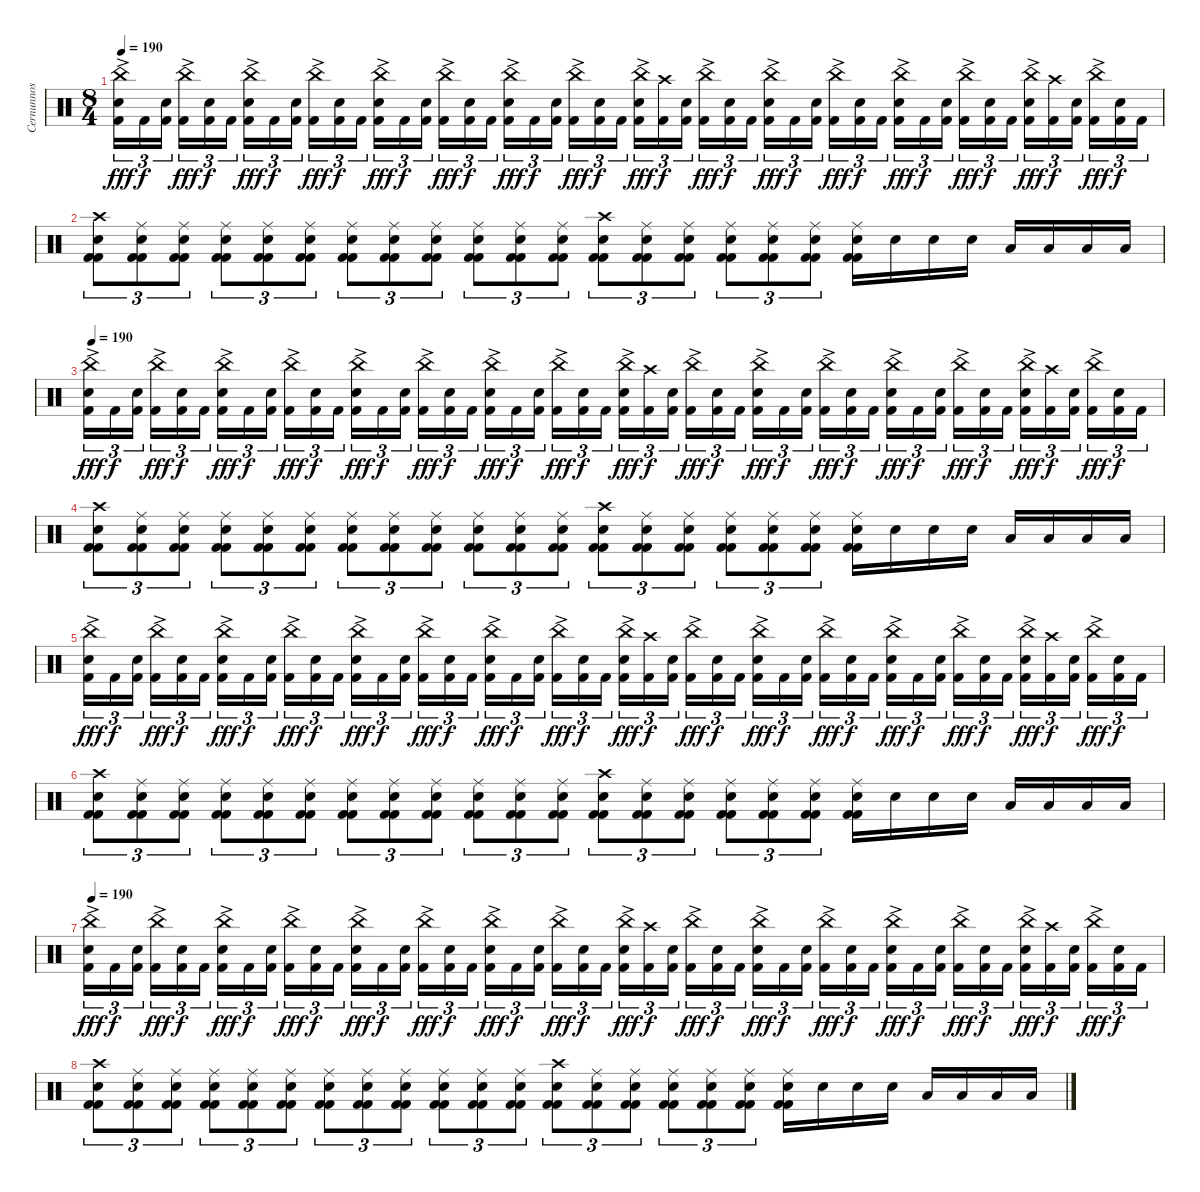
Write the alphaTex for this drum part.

\track ("Cernunnos (in memory)" "Cernunnos ") {instrument percussion}
\staff {score}
\articulation defaults
\ts (8 4)
\tempo 190
\clef neutral
\ks c
("China (hit)"{ac} "Electric Snare (hit)" "Kick (hit) 2").16{tu (3 2) dy fff} "Kick (hit) 2".16{tu (3 2) dy f} ("Electric Snare (hit)" "Kick (hit) 2").16{tu (3 2)} ("China (hit)"{ac} "Kick (hit) 2").16{tu (3 2) dy fff} ("Electric Snare (hit)" "Kick (hit) 2").16{tu (3 2) dy f} "Kick (hit) 2".16{tu (3 2)} ("China (hit)"{ac} "Electric Snare (hit)" "Kick (hit) 2").16{tu (3 2) dy fff} "Kick (hit) 2".16{tu (3 2) dy f} ("Electric Snare (hit)" "Kick (hit) 2").16{tu (3 2)} ("China (hit)"{ac} "Kick (hit) 2").16{tu (3 2) dy fff} ("Electric Snare (hit)" "Kick (hit) 2").16{tu (3 2) dy f} "Kick (hit) 2".16{tu (3 2)} ("China (hit)"{ac} "Electric Snare (hit)" "Kick (hit) 2").16{tu (3 2) dy fff} "Kick (hit) 2".16{tu (3 2) dy f} ("Electric Snare (hit)" "Kick (hit) 2").16{tu (3 2)} ("China (hit)"{ac} "Kick (hit) 2").16{tu (3 2) dy fff} ("Electric Snare (hit)" "Kick (hit) 2").16{tu (3 2) dy f} "Kick (hit) 2".16{tu (3 2)} ("China (hit)"{ac} "Electric Snare (hit)" "Kick (hit) 2").16{tu (3 2) dy fff} "Kick (hit) 2".16{tu (3 2) dy f} ("Electric Snare (hit)" "Kick (hit) 2").16{tu (3 2)} ("China (hit)"{ac} "Kick (hit) 2").16{tu (3 2) dy fff} ("Electric Snare (hit)" "Kick (hit) 2").16{tu (3 2) dy f} "Kick (hit) 2".16{tu (3 2)} ("China (hit)"{ac} "Electric Snare (hit)" "Kick (hit) 2").16{tu (3 2) dy fff} ("Crash high (hit)" "Kick (hit) 2").16{tu (3 2) dy f} ("Electric Snare (hit)" "Kick (hit) 2").16{tu (3 2)} ("China (hit)"{ac} "Kick (hit) 2").16{tu (3 2) dy fff} ("Electric Snare (hit)" "Kick (hit) 2").16{tu (3 2) dy f} "Kick (hit) 2".16{tu (3 2)} ("China (hit)"{ac} "Electric Snare (hit)" "Kick (hit) 2").16{tu (3 2) dy fff} "Kick (hit) 2".16{tu (3 2) dy f} ("Electric Snare (hit)" "Kick (hit) 2").16{tu (3 2)} ("China (hit)"{ac} "Kick (hit) 2").16{tu (3 2) dy fff} ("Electric Snare (hit)" "Kick (hit) 2").16{tu (3 2) dy f} "Kick (hit) 2".16{tu (3 2)} ("China (hit)"{ac} "Electric Snare (hit)" "Kick (hit) 2").16{tu (3 2) dy fff} "Kick (hit) 2".16{tu (3 2) dy f} ("Electric Snare (hit)" "Kick (hit) 2").16{tu (3 2)} ("China (hit)"{ac} "Kick (hit) 2").16{tu (3 2) dy fff} ("Electric Snare (hit)" "Kick (hit) 2").16{tu (3 2) dy f} "Kick (hit) 2".16{tu (3 2)} ("China (hit)"{ac} "Electric Snare (hit)" "Kick (hit) 2").16{tu (3 2) dy fff} ("Crash high (hit)" "Kick (hit) 2").16{tu (3 2) dy f} ("Electric Snare (hit)" "Kick (hit) 2").16{tu (3 2)} ("China (hit)"{ac} "Kick (hit) 2").16{tu (3 2) dy fff} ("Electric Snare (hit)" "Kick (hit) 2").16{tu (3 2) dy f} "Kick (hit) 2".16{tu (3 2)} |
("Crash high (hit)" "Electric Snare (hit)" "Kick (hit) 2" "Kick (hit) 2").8{tu (3 2)} ("Ride (middle)" "Electric Snare (hit)" "Kick (hit) 2" "Kick (hit) 2").8{tu (3 2)} ("Ride (middle)" "Electric Snare (hit)" "Kick (hit) 2" "Kick (hit) 2").8{tu (3 2)} ("Ride (middle)" "Electric Snare (hit)" "Kick (hit) 2" "Kick (hit) 2").8{tu (3 2)} ("Ride (middle)" "Electric Snare (hit)" "Kick (hit) 2" "Kick (hit) 2").8{tu (3 2)} ("Ride (middle)" "Electric Snare (hit)" "Kick (hit) 2" "Kick (hit) 2").8{tu (3 2)} ("Ride (middle)" "Electric Snare (hit)" "Kick (hit) 2" "Kick (hit) 2").8{tu (3 2)} ("Ride (middle)" "Electric Snare (hit)" "Kick (hit) 2" "Kick (hit) 2").8{tu (3 2)} ("Ride (middle)" "Electric Snare (hit)" "Kick (hit) 2" "Kick (hit) 2").8{tu (3 2)} ("Ride (middle)" "Electric Snare (hit)" "Kick (hit) 2" "Kick (hit) 2").8{tu (3 2)} ("Ride (middle)" "Electric Snare (hit)" "Kick (hit) 2" "Kick (hit) 2").8{tu (3 2)} ("Ride (middle)" "Electric Snare (hit)" "Kick (hit) 2" "Kick (hit) 2").8{tu (3 2)} ("Crash high (hit)" "Electric Snare (hit)" "Kick (hit) 2" "Kick (hit) 2").8{tu (3 2)} ("Ride (middle)" "Electric Snare (hit)" "Kick (hit) 2" "Kick (hit) 2").8{tu (3 2)} ("Ride (middle)" "Electric Snare (hit)" "Kick (hit) 2" "Kick (hit) 2").8{tu (3 2)} ("Ride (middle)" "Electric Snare (hit)" "Kick (hit) 2" "Kick (hit) 2").8{tu (3 2)} ("Ride (middle)" "Electric Snare (hit)" "Kick (hit) 2" "Kick (hit) 2").8{tu (3 2)} ("Ride (middle)" "Electric Snare (hit)" "Kick (hit) 2" "Kick (hit) 2").8{tu (3 2)} ("Ride (middle)" "Electric Snare (hit)" "Kick (hit) 2" "Kick (hit) 2").16 "Electric Snare (hit)".16 "Electric Snare (hit)".16 "Electric Snare (hit)".16 "Low Floor Tom (hit)".16 "Low Floor Tom (hit)".16 "Low Floor Tom (hit)".16 "Low Floor Tom (hit)".16 |
\tempo 190
("China (hit)"{ac} "Electric Snare (hit)" "Kick (hit) 2").16{tu (3 2) dy fff} "Kick (hit) 2".16{tu (3 2) dy f} ("Electric Snare (hit)" "Kick (hit) 2").16{tu (3 2)} ("China (hit)"{ac} "Kick (hit) 2").16{tu (3 2) dy fff} ("Electric Snare (hit)" "Kick (hit) 2").16{tu (3 2) dy f} "Kick (hit) 2".16{tu (3 2)} ("China (hit)"{ac} "Electric Snare (hit)" "Kick (hit) 2").16{tu (3 2) dy fff} "Kick (hit) 2".16{tu (3 2) dy f} ("Electric Snare (hit)" "Kick (hit) 2").16{tu (3 2)} ("China (hit)"{ac} "Kick (hit) 2").16{tu (3 2) dy fff} ("Electric Snare (hit)" "Kick (hit) 2").16{tu (3 2) dy f} "Kick (hit) 2".16{tu (3 2)} ("China (hit)"{ac} "Electric Snare (hit)" "Kick (hit) 2").16{tu (3 2) dy fff} "Kick (hit) 2".16{tu (3 2) dy f} ("Electric Snare (hit)" "Kick (hit) 2").16{tu (3 2)} ("China (hit)"{ac} "Kick (hit) 2").16{tu (3 2) dy fff} ("Electric Snare (hit)" "Kick (hit) 2").16{tu (3 2) dy f} "Kick (hit) 2".16{tu (3 2)} ("China (hit)"{ac} "Electric Snare (hit)" "Kick (hit) 2").16{tu (3 2) dy fff} "Kick (hit) 2".16{tu (3 2) dy f} ("Electric Snare (hit)" "Kick (hit) 2").16{tu (3 2)} ("China (hit)"{ac} "Kick (hit) 2").16{tu (3 2) dy fff} ("Electric Snare (hit)" "Kick (hit) 2").16{tu (3 2) dy f} "Kick (hit) 2".16{tu (3 2)} ("China (hit)"{ac} "Electric Snare (hit)" "Kick (hit) 2").16{tu (3 2) dy fff} ("Crash high (hit)" "Kick (hit) 2").16{tu (3 2) dy f} ("Electric Snare (hit)" "Kick (hit) 2").16{tu (3 2)} ("China (hit)"{ac} "Kick (hit) 2").16{tu (3 2) dy fff} ("Electric Snare (hit)" "Kick (hit) 2").16{tu (3 2) dy f} "Kick (hit) 2".16{tu (3 2)} ("China (hit)"{ac} "Electric Snare (hit)" "Kick (hit) 2").16{tu (3 2) dy fff} "Kick (hit) 2".16{tu (3 2) dy f} ("Electric Snare (hit)" "Kick (hit) 2").16{tu (3 2)} ("China (hit)"{ac} "Kick (hit) 2").16{tu (3 2) dy fff} ("Electric Snare (hit)" "Kick (hit) 2").16{tu (3 2) dy f} "Kick (hit) 2".16{tu (3 2)} ("China (hit)"{ac} "Electric Snare (hit)" "Kick (hit) 2").16{tu (3 2) dy fff} "Kick (hit) 2".16{tu (3 2) dy f} ("Electric Snare (hit)" "Kick (hit) 2").16{tu (3 2)} ("China (hit)"{ac} "Kick (hit) 2").16{tu (3 2) dy fff} ("Electric Snare (hit)" "Kick (hit) 2").16{tu (3 2) dy f} "Kick (hit) 2".16{tu (3 2)} ("China (hit)"{ac} "Electric Snare (hit)" "Kick (hit) 2").16{tu (3 2) dy fff} ("Crash high (hit)" "Kick (hit) 2").16{tu (3 2) dy f} ("Electric Snare (hit)" "Kick (hit) 2").16{tu (3 2)} ("China (hit)"{ac} "Kick (hit) 2").16{tu (3 2) dy fff} ("Electric Snare (hit)" "Kick (hit) 2").16{tu (3 2) dy f} "Kick (hit) 2".16{tu (3 2)} |
("Crash high (hit)" "Electric Snare (hit)" "Kick (hit) 2" "Kick (hit) 2").8{tu (3 2)} ("Ride (middle)" "Electric Snare (hit)" "Kick (hit) 2" "Kick (hit) 2").8{tu (3 2)} ("Ride (middle)" "Electric Snare (hit)" "Kick (hit) 2" "Kick (hit) 2").8{tu (3 2)} ("Ride (middle)" "Electric Snare (hit)" "Kick (hit) 2" "Kick (hit) 2").8{tu (3 2)} ("Ride (middle)" "Electric Snare (hit)" "Kick (hit) 2" "Kick (hit) 2").8{tu (3 2)} ("Ride (middle)" "Electric Snare (hit)" "Kick (hit) 2" "Kick (hit) 2").8{tu (3 2)} ("Ride (middle)" "Electric Snare (hit)" "Kick (hit) 2" "Kick (hit) 2").8{tu (3 2)} ("Ride (middle)" "Electric Snare (hit)" "Kick (hit) 2" "Kick (hit) 2").8{tu (3 2)} ("Ride (middle)" "Electric Snare (hit)" "Kick (hit) 2" "Kick (hit) 2").8{tu (3 2)} ("Ride (middle)" "Electric Snare (hit)" "Kick (hit) 2" "Kick (hit) 2").8{tu (3 2)} ("Ride (middle)" "Electric Snare (hit)" "Kick (hit) 2" "Kick (hit) 2").8{tu (3 2)} ("Ride (middle)" "Electric Snare (hit)" "Kick (hit) 2" "Kick (hit) 2").8{tu (3 2)} ("Crash high (hit)" "Electric Snare (hit)" "Kick (hit) 2" "Kick (hit) 2").8{tu (3 2)} ("Ride (middle)" "Electric Snare (hit)" "Kick (hit) 2" "Kick (hit) 2").8{tu (3 2)} ("Ride (middle)" "Electric Snare (hit)" "Kick (hit) 2" "Kick (hit) 2").8{tu (3 2)} ("Ride (middle)" "Electric Snare (hit)" "Kick (hit) 2" "Kick (hit) 2").8{tu (3 2)} ("Ride (middle)" "Electric Snare (hit)" "Kick (hit) 2" "Kick (hit) 2").8{tu (3 2)} ("Ride (middle)" "Electric Snare (hit)" "Kick (hit) 2" "Kick (hit) 2").8{tu (3 2)} ("Ride (middle)" "Electric Snare (hit)" "Kick (hit) 2" "Kick (hit) 2").16 "Electric Snare (hit)".16 "Electric Snare (hit)".16 "Electric Snare (hit)".16 "Low Floor Tom (hit)".16 "Low Floor Tom (hit)".16 "Low Floor Tom (hit)".16 "Low Floor Tom (hit)".16 |
("China (hit)"{ac} "Electric Snare (hit)" "Kick (hit) 2").16{tu (3 2) dy fff} "Kick (hit) 2".16{tu (3 2) dy f} ("Electric Snare (hit)" "Kick (hit) 2").16{tu (3 2)} ("China (hit)"{ac} "Kick (hit) 2").16{tu (3 2) dy fff} ("Electric Snare (hit)" "Kick (hit) 2").16{tu (3 2) dy f} "Kick (hit) 2".16{tu (3 2)} ("China (hit)"{ac} "Electric Snare (hit)" "Kick (hit) 2").16{tu (3 2) dy fff} "Kick (hit) 2".16{tu (3 2) dy f} ("Electric Snare (hit)" "Kick (hit) 2").16{tu (3 2)} ("China (hit)"{ac} "Kick (hit) 2").16{tu (3 2) dy fff} ("Electric Snare (hit)" "Kick (hit) 2").16{tu (3 2) dy f} "Kick (hit) 2".16{tu (3 2)} ("China (hit)"{ac} "Electric Snare (hit)" "Kick (hit) 2").16{tu (3 2) dy fff} "Kick (hit) 2".16{tu (3 2) dy f} ("Electric Snare (hit)" "Kick (hit) 2").16{tu (3 2)} ("China (hit)"{ac} "Kick (hit) 2").16{tu (3 2) dy fff} ("Electric Snare (hit)" "Kick (hit) 2").16{tu (3 2) dy f} "Kick (hit) 2".16{tu (3 2)} ("China (hit)"{ac} "Electric Snare (hit)" "Kick (hit) 2").16{tu (3 2) dy fff} "Kick (hit) 2".16{tu (3 2) dy f} ("Electric Snare (hit)" "Kick (hit) 2").16{tu (3 2)} ("China (hit)"{ac} "Kick (hit) 2").16{tu (3 2) dy fff} ("Electric Snare (hit)" "Kick (hit) 2").16{tu (3 2) dy f} "Kick (hit) 2".16{tu (3 2)} ("China (hit)"{ac} "Electric Snare (hit)" "Kick (hit) 2").16{tu (3 2) dy fff} ("Crash high (hit)" "Kick (hit) 2").16{tu (3 2) dy f} ("Electric Snare (hit)" "Kick (hit) 2").16{tu (3 2)} ("China (hit)"{ac} "Kick (hit) 2").16{tu (3 2) dy fff} ("Electric Snare (hit)" "Kick (hit) 2").16{tu (3 2) dy f} "Kick (hit) 2".16{tu (3 2)} ("China (hit)"{ac} "Electric Snare (hit)" "Kick (hit) 2").16{tu (3 2) dy fff} "Kick (hit) 2".16{tu (3 2) dy f} ("Electric Snare (hit)" "Kick (hit) 2").16{tu (3 2)} ("China (hit)"{ac} "Kick (hit) 2").16{tu (3 2) dy fff} ("Electric Snare (hit)" "Kick (hit) 2").16{tu (3 2) dy f} "Kick (hit) 2".16{tu (3 2)} ("China (hit)"{ac} "Electric Snare (hit)" "Kick (hit) 2").16{tu (3 2) dy fff} "Kick (hit) 2".16{tu (3 2) dy f} ("Electric Snare (hit)" "Kick (hit) 2").16{tu (3 2)} ("China (hit)"{ac} "Kick (hit) 2").16{tu (3 2) dy fff} ("Electric Snare (hit)" "Kick (hit) 2").16{tu (3 2) dy f} "Kick (hit) 2".16{tu (3 2)} ("China (hit)"{ac} "Electric Snare (hit)" "Kick (hit) 2").16{tu (3 2) dy fff} ("Crash high (hit)" "Kick (hit) 2").16{tu (3 2) dy f} ("Electric Snare (hit)" "Kick (hit) 2").16{tu (3 2)} ("China (hit)"{ac} "Kick (hit) 2").16{tu (3 2) dy fff} ("Electric Snare (hit)" "Kick (hit) 2").16{tu (3 2) dy f} "Kick (hit) 2".16{tu (3 2)} |
("Crash high (hit)" "Electric Snare (hit)" "Kick (hit) 2" "Kick (hit) 2").8{tu (3 2)} ("Ride (middle)" "Electric Snare (hit)" "Kick (hit) 2" "Kick (hit) 2").8{tu (3 2)} ("Ride (middle)" "Electric Snare (hit)" "Kick (hit) 2" "Kick (hit) 2").8{tu (3 2)} ("Ride (middle)" "Electric Snare (hit)" "Kick (hit) 2" "Kick (hit) 2").8{tu (3 2)} ("Ride (middle)" "Electric Snare (hit)" "Kick (hit) 2" "Kick (hit) 2").8{tu (3 2)} ("Ride (middle)" "Electric Snare (hit)" "Kick (hit) 2" "Kick (hit) 2").8{tu (3 2)} ("Ride (middle)" "Electric Snare (hit)" "Kick (hit) 2" "Kick (hit) 2").8{tu (3 2)} ("Ride (middle)" "Electric Snare (hit)" "Kick (hit) 2" "Kick (hit) 2").8{tu (3 2)} ("Ride (middle)" "Electric Snare (hit)" "Kick (hit) 2" "Kick (hit) 2").8{tu (3 2)} ("Ride (middle)" "Electric Snare (hit)" "Kick (hit) 2" "Kick (hit) 2").8{tu (3 2)} ("Ride (middle)" "Electric Snare (hit)" "Kick (hit) 2" "Kick (hit) 2").8{tu (3 2)} ("Ride (middle)" "Electric Snare (hit)" "Kick (hit) 2" "Kick (hit) 2").8{tu (3 2)} ("Crash high (hit)" "Electric Snare (hit)" "Kick (hit) 2" "Kick (hit) 2").8{tu (3 2)} ("Ride (middle)" "Electric Snare (hit)" "Kick (hit) 2" "Kick (hit) 2").8{tu (3 2)} ("Ride (middle)" "Electric Snare (hit)" "Kick (hit) 2" "Kick (hit) 2").8{tu (3 2)} ("Ride (middle)" "Electric Snare (hit)" "Kick (hit) 2" "Kick (hit) 2").8{tu (3 2)} ("Ride (middle)" "Electric Snare (hit)" "Kick (hit) 2" "Kick (hit) 2").8{tu (3 2)} ("Ride (middle)" "Electric Snare (hit)" "Kick (hit) 2" "Kick (hit) 2").8{tu (3 2)} ("Ride (middle)" "Electric Snare (hit)" "Kick (hit) 2" "Kick (hit) 2").16 "Electric Snare (hit)".16 "Electric Snare (hit)".16 "Electric Snare (hit)".16 "Low Floor Tom (hit)".16 "Low Floor Tom (hit)".16 "Low Floor Tom (hit)".16 "Low Floor Tom (hit)".16 |
\tempo 190
("China (hit)"{ac} "Electric Snare (hit)" "Kick (hit) 2").16{tu (3 2) dy fff} "Kick (hit) 2".16{tu (3 2) dy f} ("Electric Snare (hit)" "Kick (hit) 2").16{tu (3 2)} ("China (hit)"{ac} "Kick (hit) 2").16{tu (3 2) dy fff} ("Electric Snare (hit)" "Kick (hit) 2").16{tu (3 2) dy f} "Kick (hit) 2".16{tu (3 2)} ("China (hit)"{ac} "Electric Snare (hit)" "Kick (hit) 2").16{tu (3 2) dy fff} "Kick (hit) 2".16{tu (3 2) dy f} ("Electric Snare (hit)" "Kick (hit) 2").16{tu (3 2)} ("China (hit)"{ac} "Kick (hit) 2").16{tu (3 2) dy fff} ("Electric Snare (hit)" "Kick (hit) 2").16{tu (3 2) dy f} "Kick (hit) 2".16{tu (3 2)} ("China (hit)"{ac} "Electric Snare (hit)" "Kick (hit) 2").16{tu (3 2) dy fff} "Kick (hit) 2".16{tu (3 2) dy f} ("Electric Snare (hit)" "Kick (hit) 2").16{tu (3 2)} ("China (hit)"{ac} "Kick (hit) 2").16{tu (3 2) dy fff} ("Electric Snare (hit)" "Kick (hit) 2").16{tu (3 2) dy f} "Kick (hit) 2".16{tu (3 2)} ("China (hit)"{ac} "Electric Snare (hit)" "Kick (hit) 2").16{tu (3 2) dy fff} "Kick (hit) 2".16{tu (3 2) dy f} ("Electric Snare (hit)" "Kick (hit) 2").16{tu (3 2)} ("China (hit)"{ac} "Kick (hit) 2").16{tu (3 2) dy fff} ("Electric Snare (hit)" "Kick (hit) 2").16{tu (3 2) dy f} "Kick (hit) 2".16{tu (3 2)} ("China (hit)"{ac} "Electric Snare (hit)" "Kick (hit) 2").16{tu (3 2) dy fff} ("Crash high (hit)" "Kick (hit) 2").16{tu (3 2) dy f} ("Electric Snare (hit)" "Kick (hit) 2").16{tu (3 2)} ("China (hit)"{ac} "Kick (hit) 2").16{tu (3 2) dy fff} ("Electric Snare (hit)" "Kick (hit) 2").16{tu (3 2) dy f} "Kick (hit) 2".16{tu (3 2)} ("China (hit)"{ac} "Electric Snare (hit)" "Kick (hit) 2").16{tu (3 2) dy fff} "Kick (hit) 2".16{tu (3 2) dy f} ("Electric Snare (hit)" "Kick (hit) 2").16{tu (3 2)} ("China (hit)"{ac} "Kick (hit) 2").16{tu (3 2) dy fff} ("Electric Snare (hit)" "Kick (hit) 2").16{tu (3 2) dy f} "Kick (hit) 2".16{tu (3 2)} ("China (hit)"{ac} "Electric Snare (hit)" "Kick (hit) 2").16{tu (3 2) dy fff} "Kick (hit) 2".16{tu (3 2) dy f} ("Electric Snare (hit)" "Kick (hit) 2").16{tu (3 2)} ("China (hit)"{ac} "Kick (hit) 2").16{tu (3 2) dy fff} ("Electric Snare (hit)" "Kick (hit) 2").16{tu (3 2) dy f} "Kick (hit) 2".16{tu (3 2)} ("China (hit)"{ac} "Electric Snare (hit)" "Kick (hit) 2").16{tu (3 2) dy fff} ("Crash high (hit)" "Kick (hit) 2").16{tu (3 2) dy f} ("Electric Snare (hit)" "Kick (hit) 2").16{tu (3 2)} ("China (hit)"{ac} "Kick (hit) 2").16{tu (3 2) dy fff} ("Electric Snare (hit)" "Kick (hit) 2").16{tu (3 2) dy f} "Kick (hit) 2".16{tu (3 2)} |
("Crash high (hit)" "Electric Snare (hit)" "Kick (hit) 2" "Kick (hit) 2").8{tu (3 2)} ("Ride (middle)" "Electric Snare (hit)" "Kick (hit) 2" "Kick (hit) 2").8{tu (3 2)} ("Ride (middle)" "Electric Snare (hit)" "Kick (hit) 2" "Kick (hit) 2").8{tu (3 2)} ("Ride (middle)" "Electric Snare (hit)" "Kick (hit) 2" "Kick (hit) 2").8{tu (3 2)} ("Ride (middle)" "Electric Snare (hit)" "Kick (hit) 2" "Kick (hit) 2").8{tu (3 2)} ("Ride (middle)" "Electric Snare (hit)" "Kick (hit) 2" "Kick (hit) 2").8{tu (3 2)} ("Ride (middle)" "Electric Snare (hit)" "Kick (hit) 2" "Kick (hit) 2").8{tu (3 2)} ("Ride (middle)" "Electric Snare (hit)" "Kick (hit) 2" "Kick (hit) 2").8{tu (3 2)} ("Ride (middle)" "Electric Snare (hit)" "Kick (hit) 2" "Kick (hit) 2").8{tu (3 2)} ("Ride (middle)" "Electric Snare (hit)" "Kick (hit) 2" "Kick (hit) 2").8{tu (3 2)} ("Ride (middle)" "Electric Snare (hit)" "Kick (hit) 2" "Kick (hit) 2").8{tu (3 2)} ("Ride (middle)" "Electric Snare (hit)" "Kick (hit) 2" "Kick (hit) 2").8{tu (3 2)} ("Crash high (hit)" "Electric Snare (hit)" "Kick (hit) 2" "Kick (hit) 2").8{tu (3 2)} ("Ride (middle)" "Electric Snare (hit)" "Kick (hit) 2" "Kick (hit) 2").8{tu (3 2)} ("Ride (middle)" "Electric Snare (hit)" "Kick (hit) 2" "Kick (hit) 2").8{tu (3 2)} ("Ride (middle)" "Electric Snare (hit)" "Kick (hit) 2" "Kick (hit) 2").8{tu (3 2)} ("Ride (middle)" "Electric Snare (hit)" "Kick (hit) 2" "Kick (hit) 2").8{tu (3 2)} ("Ride (middle)" "Electric Snare (hit)" "Kick (hit) 2" "Kick (hit) 2").8{tu (3 2)} ("Ride (middle)" "Electric Snare (hit)" "Kick (hit) 2" "Kick (hit) 2").16 "Electric Snare (hit)".16 "Electric Snare (hit)".16 "Electric Snare (hit)".16 "Low Floor Tom (hit)".16 "Low Floor Tom (hit)".16 "Low Floor Tom (hit)".16 "Low Floor Tom (hit)".16
